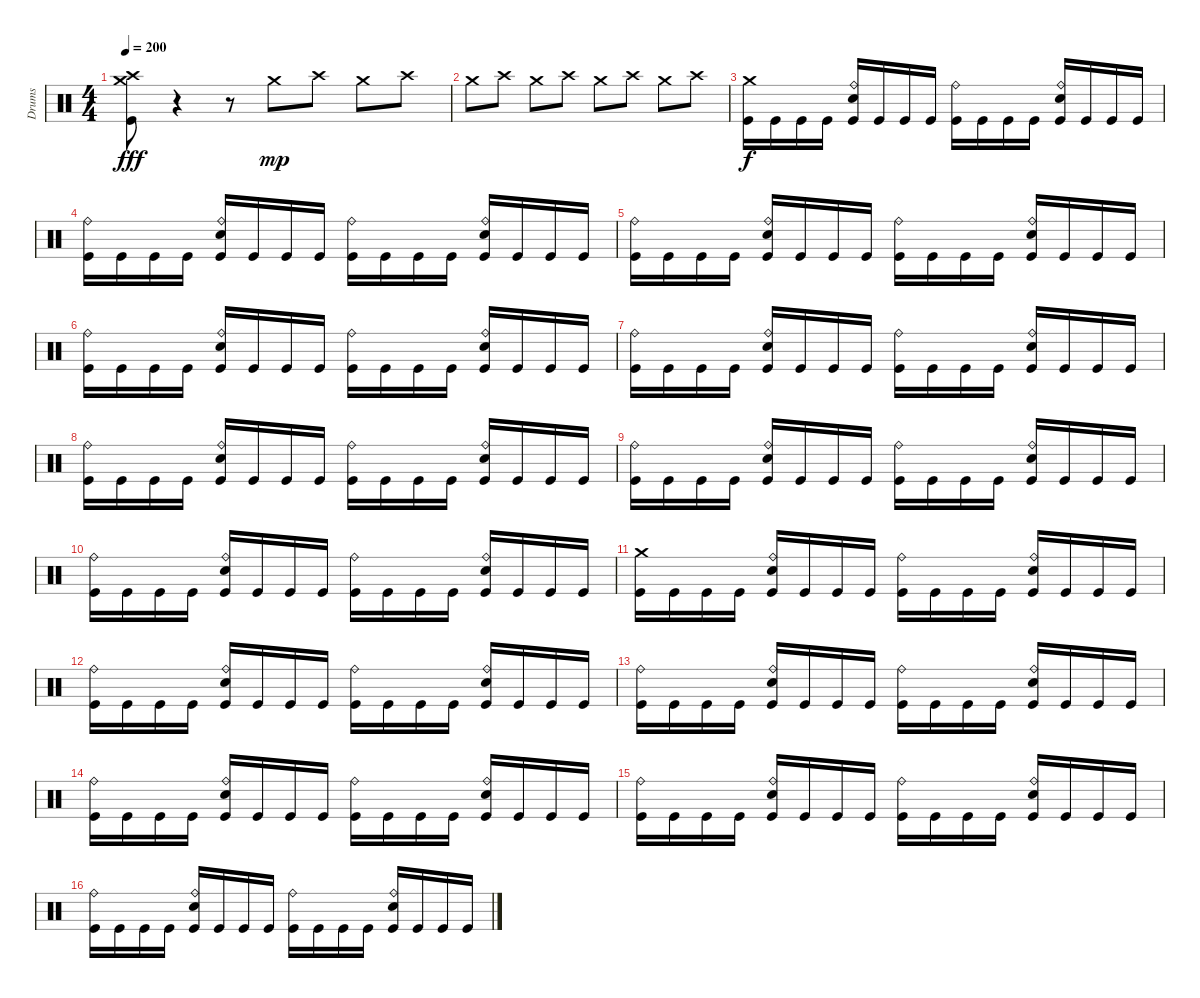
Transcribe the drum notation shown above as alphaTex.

\track ("Drums" "Drums") {instrument percussion}
\staff {score}
\articulation defaults
\ts (4 4)
\tempo 200
\clef neutral
\ks c
("Crash medium (hit)" "Crash high (hit)" "Kick (hit)").8{dy fff} r.4 r.8 "Crash medium (hit)".8{dy mp} "Crash high (hit)".8 "Crash medium (hit)".8 "Crash high (hit)".8 |
"Crash medium (hit)".8 "Crash high (hit)".8 "Crash medium (hit)".8 "Crash high (hit)".8 "Crash medium (hit)".8 "Crash high (hit)".8 "Crash medium (hit)".8 "Crash high (hit)".8 |
("Crash medium (hit)" "Kick (hit)").16{dy f} "Kick (hit)".16 "Kick (hit)".16 "Kick (hit)".16 ("Ride (bell)" "Electric Snare (hit)" "Kick (hit)").16 "Kick (hit)".16 "Kick (hit)".16 "Kick (hit)".16 ("Ride (bell)" "Kick (hit)").16 "Kick (hit)".16 "Kick (hit)".16 "Kick (hit)".16 ("Ride (bell)" "Electric Snare (hit)" "Kick (hit)").16 "Kick (hit)".16 "Kick (hit)".16 "Kick (hit)".16 |
("Ride (bell)" "Kick (hit)").16 "Kick (hit)".16 "Kick (hit)".16 "Kick (hit)".16 ("Ride (bell)" "Electric Snare (hit)" "Kick (hit)").16 "Kick (hit)".16 "Kick (hit)".16 "Kick (hit)".16 ("Ride (bell)" "Kick (hit)").16 "Kick (hit)".16 "Kick (hit)".16 "Kick (hit)".16 ("Ride (bell)" "Electric Snare (hit)" "Kick (hit)").16 "Kick (hit)".16 "Kick (hit)".16 "Kick (hit)".16 |
("Ride (bell)" "Kick (hit)").16 "Kick (hit)".16 "Kick (hit)".16 "Kick (hit)".16 ("Ride (bell)" "Electric Snare (hit)" "Kick (hit)").16 "Kick (hit)".16 "Kick (hit)".16 "Kick (hit)".16 ("Ride (bell)" "Kick (hit)").16 "Kick (hit)".16 "Kick (hit)".16 "Kick (hit)".16 ("Ride (bell)" "Electric Snare (hit)" "Kick (hit)").16 "Kick (hit)".16 "Kick (hit)".16 "Kick (hit)".16 |
("Ride (bell)" "Kick (hit)").16 "Kick (hit)".16 "Kick (hit)".16 "Kick (hit)".16 ("Ride (bell)" "Electric Snare (hit)" "Kick (hit)").16 "Kick (hit)".16 "Kick (hit)".16 "Kick (hit)".16 ("Ride (bell)" "Kick (hit)").16 "Kick (hit)".16 "Kick (hit)".16 "Kick (hit)".16 ("Ride (bell)" "Electric Snare (hit)" "Kick (hit)").16 "Kick (hit)".16 "Kick (hit)".16 "Kick (hit)".16 |
("Ride (bell)" "Kick (hit)").16 "Kick (hit)".16 "Kick (hit)".16 "Kick (hit)".16 ("Ride (bell)" "Electric Snare (hit)" "Kick (hit)").16 "Kick (hit)".16 "Kick (hit)".16 "Kick (hit)".16 ("Ride (bell)" "Kick (hit)").16 "Kick (hit)".16 "Kick (hit)".16 "Kick (hit)".16 ("Ride (bell)" "Electric Snare (hit)" "Kick (hit)").16 "Kick (hit)".16 "Kick (hit)".16 "Kick (hit)".16 |
("Ride (bell)" "Kick (hit)").16 "Kick (hit)".16 "Kick (hit)".16 "Kick (hit)".16 ("Ride (bell)" "Electric Snare (hit)" "Kick (hit)").16 "Kick (hit)".16 "Kick (hit)".16 "Kick (hit)".16 ("Ride (bell)" "Kick (hit)").16 "Kick (hit)".16 "Kick (hit)".16 "Kick (hit)".16 ("Ride (bell)" "Electric Snare (hit)" "Kick (hit)").16 "Kick (hit)".16 "Kick (hit)".16 "Kick (hit)".16 |
("Ride (bell)" "Kick (hit)").16 "Kick (hit)".16 "Kick (hit)".16 "Kick (hit)".16 ("Ride (bell)" "Electric Snare (hit)" "Kick (hit)").16 "Kick (hit)".16 "Kick (hit)".16 "Kick (hit)".16 ("Ride (bell)" "Kick (hit)").16 "Kick (hit)".16 "Kick (hit)".16 "Kick (hit)".16 ("Ride (bell)" "Electric Snare (hit)" "Kick (hit)").16 "Kick (hit)".16 "Kick (hit)".16 "Kick (hit)".16 |
("Ride (bell)" "Kick (hit)").16 "Kick (hit)".16 "Kick (hit)".16 "Kick (hit)".16 ("Ride (bell)" "Electric Snare (hit)" "Kick (hit)").16 "Kick (hit)".16 "Kick (hit)".16 "Kick (hit)".16 ("Ride (bell)" "Kick (hit)").16 "Kick (hit)".16 "Kick (hit)".16 "Kick (hit)".16 ("Ride (bell)" "Electric Snare (hit)" "Kick (hit)").16 "Kick (hit)".16 "Kick (hit)".16 "Kick (hit)".16 |
("Crash medium (hit)" "Kick (hit)").16 "Kick (hit)".16 "Kick (hit)".16 "Kick (hit)".16 ("Ride (bell)" "Electric Snare (hit)" "Kick (hit)").16 "Kick (hit)".16 "Kick (hit)".16 "Kick (hit)".16 ("Ride (bell)" "Kick (hit)").16 "Kick (hit)".16 "Kick (hit)".16 "Kick (hit)".16 ("Ride (bell)" "Electric Snare (hit)" "Kick (hit)").16 "Kick (hit)".16 "Kick (hit)".16 "Kick (hit)".16 |
("Ride (bell)" "Kick (hit)").16 "Kick (hit)".16 "Kick (hit)".16 "Kick (hit)".16 ("Ride (bell)" "Electric Snare (hit)" "Kick (hit)").16 "Kick (hit)".16 "Kick (hit)".16 "Kick (hit)".16 ("Ride (bell)" "Kick (hit)").16 "Kick (hit)".16 "Kick (hit)".16 "Kick (hit)".16 ("Ride (bell)" "Electric Snare (hit)" "Kick (hit)").16 "Kick (hit)".16 "Kick (hit)".16 "Kick (hit)".16 |
("Ride (bell)" "Kick (hit)").16 "Kick (hit)".16 "Kick (hit)".16 "Kick (hit)".16 ("Ride (bell)" "Electric Snare (hit)" "Kick (hit)").16 "Kick (hit)".16 "Kick (hit)".16 "Kick (hit)".16 ("Ride (bell)" "Kick (hit)").16 "Kick (hit)".16 "Kick (hit)".16 "Kick (hit)".16 ("Ride (bell)" "Electric Snare (hit)" "Kick (hit)").16 "Kick (hit)".16 "Kick (hit)".16 "Kick (hit)".16 |
("Ride (bell)" "Kick (hit)").16 "Kick (hit)".16 "Kick (hit)".16 "Kick (hit)".16 ("Ride (bell)" "Electric Snare (hit)" "Kick (hit)").16 "Kick (hit)".16 "Kick (hit)".16 "Kick (hit)".16 ("Ride (bell)" "Kick (hit)").16 "Kick (hit)".16 "Kick (hit)".16 "Kick (hit)".16 ("Ride (bell)" "Electric Snare (hit)" "Kick (hit)").16 "Kick (hit)".16 "Kick (hit)".16 "Kick (hit)".16 |
("Ride (bell)" "Kick (hit)").16 "Kick (hit)".16 "Kick (hit)".16 "Kick (hit)".16 ("Ride (bell)" "Electric Snare (hit)" "Kick (hit)").16 "Kick (hit)".16 "Kick (hit)".16 "Kick (hit)".16 ("Ride (bell)" "Kick (hit)").16 "Kick (hit)".16 "Kick (hit)".16 "Kick (hit)".16 ("Ride (bell)" "Electric Snare (hit)" "Kick (hit)").16 "Kick (hit)".16 "Kick (hit)".16 "Kick (hit)".16 |
("Ride (bell)" "Kick (hit)").16 "Kick (hit)".16 "Kick (hit)".16 "Kick (hit)".16 ("Ride (bell)" "Electric Snare (hit)" "Kick (hit)").16 "Kick (hit)".16 "Kick (hit)".16 "Kick (hit)".16 ("Ride (bell)" "Kick (hit)").16 "Kick (hit)".16 "Kick (hit)".16 "Kick (hit)".16 ("Ride (bell)" "Electric Snare (hit)" "Kick (hit)").16 "Kick (hit)".16 "Kick (hit)".16 "Kick (hit)".16
